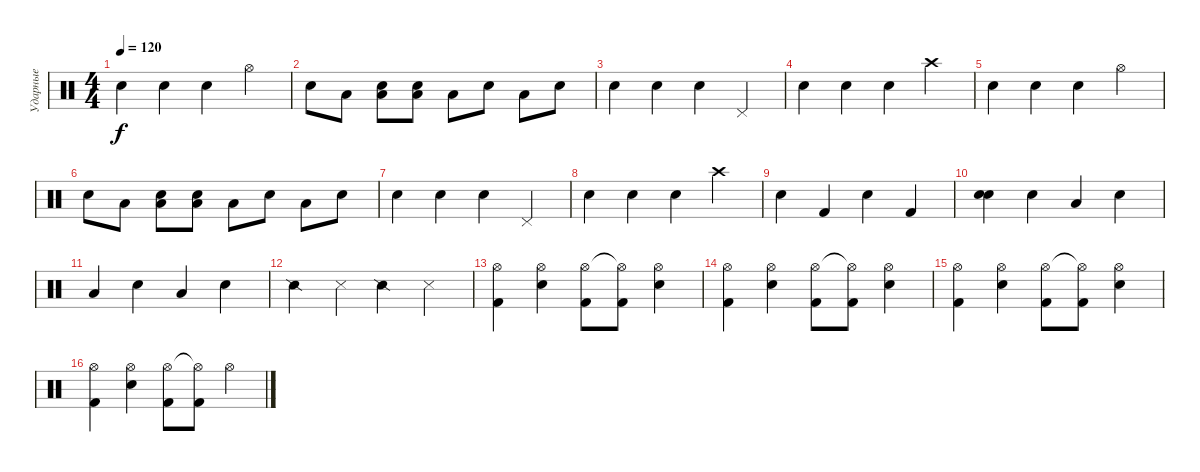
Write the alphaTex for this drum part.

\track ("Ударные" "Ударные") {instrument percussion}
\staff {score}
\articulation defaults
\ts (4 4)
\tempo 120
\clef neutral
\ks c "Electric Snare (hit)".4{dy f} "Electric Snare (hit)".4 "Electric Snare (hit)".4 "Hi-Hat (open)".4
|
"Electric Snare (hit)".8 "Low Floor Tom (hit)".8 ("Electric Snare (hit)" "Low Floor Tom (hit)").8 ("Electric Snare (hit)" "Low Floor Tom (hit)").8 "Low Floor Tom (hit)".8 "Electric Snare (hit)".8 "Low Floor Tom (hit)".8 "Electric Snare (hit)".8 |
"Electric Snare (hit)".4 "Electric Snare (hit)".4 "Electric Snare (hit)".4 "Pedal Hi-Hat (hit)".4 |
"Electric Snare (hit)".4 "Electric Snare (hit)".4 "Electric Snare (hit)".4 "Crash high (hit)".4 |
"Electric Snare (hit)".4 "Electric Snare (hit)".4 "Electric Snare (hit)".4 "Hi-Hat (open)".4 |
"Electric Snare (hit)".8 "Low Floor Tom (hit)".8 ("Electric Snare (hit)" "Low Floor Tom (hit)").8 ("Electric Snare (hit)" "Low Floor Tom (hit)").8 "Low Floor Tom (hit)".8 "Electric Snare (hit)".8 "Low Floor Tom (hit)".8 "Electric Snare (hit)".8 |
"Electric Snare (hit)".4 "Electric Snare (hit)".4 "Electric Snare (hit)".4 "Pedal Hi-Hat (hit)".4 |
"Electric Snare (hit)".4 "Electric Snare (hit)".4 "Electric Snare (hit)".4 "Crash high (hit)".4 |
"Electric Snare (hit)".4 "Kick (hit) 2".4 "Electric Snare (hit)".4 "Kick (hit) 2".4 |
("Hand Clap (hit)" "Electric Snare (hit)").4 "Electric Snare (hit)".4 "Low Floor Tom (hit)".4 "Electric Snare (hit)".4 |
"Low Floor Tom (hit)".4 "Electric Snare (hit)".4 "Low Floor Tom (hit)".4 "Electric Snare (hit)".4 |
"Snare (side stick) 2".4 "Metronome (hit)".4 "Snare (side stick) 2".4 "Metronome (hit)".4 |
("Kick (hit) 2" "Hi-Hat (open)").4 ("Electric Snare (hit)" "Hi-Hat (open)").4 ("Kick (hit) 2" "Hi-Hat (open)").8 ("Kick (hit) 2" "Hi-Hat (open)"{t}).8 ("Electric Snare (hit)" "Hi-Hat (open)").4 |
("Kick (hit) 2" "Hi-Hat (open)").4 ("Electric Snare (hit)" "Hi-Hat (open)").4 ("Kick (hit) 2" "Hi-Hat (open)").8 ("Kick (hit) 2" "Hi-Hat (open)"{t}).8 ("Electric Snare (hit)" "Hi-Hat (open)").4 |
("Kick (hit) 2" "Hi-Hat (open)").4 ("Electric Snare (hit)" "Hi-Hat (open)").4 ("Kick (hit) 2" "Hi-Hat (open)").8 ("Kick (hit) 2" "Hi-Hat (open)"{t}).8 ("Electric Snare (hit)" "Hi-Hat (open)").4 |
("Kick (hit) 2" "Hi-Hat (open)").4 ("Electric Snare (hit)" "Hi-Hat (open)").4 ("Kick (hit) 2" "Hi-Hat (open)").8 ("Kick (hit) 2" "Hi-Hat (open)"{t}).8 "Hi-Hat (open)".4
